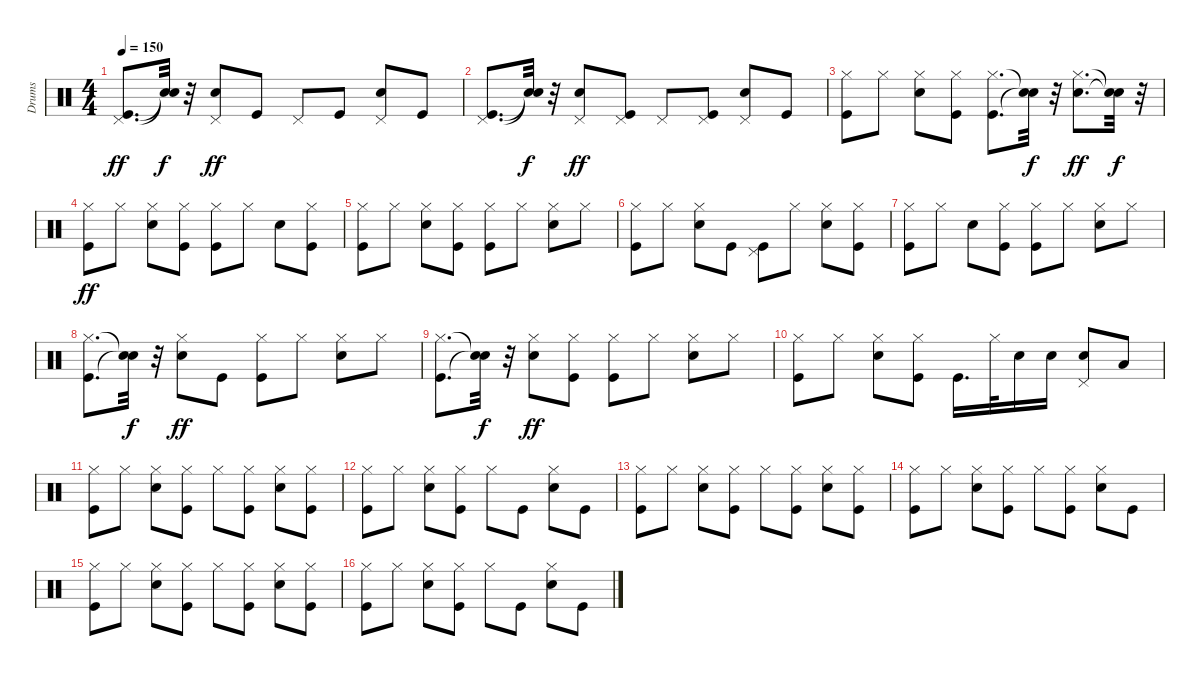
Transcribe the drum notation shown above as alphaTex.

\track ("Drums" "Drums") {instrument percussion}
\staff {score}
\articulation defaults
\ts (4 4)
\tempo 150
\clef neutral
\ks c
("Kick (hit)" "Pedal Hi-Hat (hit)").8{d dy ff} ("Snare (hit)"{t} "Snare (hit)"{t}).32{dy f} r.32 ("Snare (hit) 2" "Pedal Hi-Hat (hit)").8{dy ff} "Kick (hit)".8 "Pedal Hi-Hat (hit)".8 "Kick (hit)".8 ("Snare (hit) 2" "Pedal Hi-Hat (hit)").8 "Kick (hit)".8 |
("Kick (hit)" "Pedal Hi-Hat (hit)").8{d} ("Snare (hit)"{t} "Snare (hit)"{t}).32{dy f} r.32 ("Snare (hit) 2" "Pedal Hi-Hat (hit)").8{dy ff} ("Kick (hit)" "Pedal Hi-Hat (hit)").8 "Pedal Hi-Hat (hit)".8 ("Kick (hit)" "Pedal Hi-Hat (hit)").8 ("Snare (hit) 2" "Pedal Hi-Hat (hit)").8 "Kick (hit)".8 |
("Kick (hit)" "Hi-Hat (closed)").8 "Hi-Hat (closed)".8 ("Snare (hit) 2" "Hi-Hat (closed)").8 ("Kick (hit)" "Hi-Hat (closed)").8 ("Kick (hit)" "Hi-Hat (closed)").8{d} ("Snare (hit)"{t} "Snare (hit)"{t}).32{dy f} r.32 ("Snare (hit) 2" "Hi-Hat (closed)").8{d dy ff} ("Snare (hit)"{t} "Snare (hit)"{t}).32{dy f} r.32 |
("Kick (hit)" "Hi-Hat (closed)").8{dy ff} "Hi-Hat (closed)".8 ("Snare (hit) 2" "Hi-Hat (closed)").8 ("Kick (hit)" "Hi-Hat (closed)").8 ("Kick (hit)" "Hi-Hat (closed)").8 "Hi-Hat (closed)".8 "Snare (hit) 2".8 ("Kick (hit)" "Hi-Hat (closed)").8 |
("Kick (hit)" "Hi-Hat (closed)").8 "Hi-Hat (closed)".8 ("Snare (hit) 2" "Hi-Hat (closed)").8 ("Kick (hit)" "Hi-Hat (closed)").8 ("Kick (hit)" "Hi-Hat (closed)").8 "Hi-Hat (closed)".8 ("Snare (hit) 2" "Hi-Hat (closed)").8 "Hi-Hat (closed)".8 |
("Kick (hit)" "Hi-Hat (closed)").8 "Hi-Hat (closed)".8 ("Snare (hit) 2" "Hi-Hat (closed)").8 "Kick (hit)".8 ("Kick (hit)" "Pedal Hi-Hat (hit)").8 "Hi-Hat (closed)".8 ("Snare (hit) 2" "Hi-Hat (closed)").8 ("Kick (hit)" "Hi-Hat (closed)").8 |
("Kick (hit)" "Hi-Hat (closed)").8 "Hi-Hat (closed)".8 "Snare (hit) 2".8 ("Kick (hit)" "Hi-Hat (closed)").8 ("Kick (hit)" "Hi-Hat (closed)").8 "Hi-Hat (closed)".8 ("Snare (hit) 2" "Hi-Hat (closed)").8 "Hi-Hat (closed)".8 |
("Kick (hit)" "Hi-Hat (closed)").8{d} ("Snare (hit)"{t} "Snare (hit)"{t}).32{dy f} r.32 ("Snare (hit) 2" "Hi-Hat (closed)").8{dy ff} "Kick (hit)".8 ("Kick (hit)" "Hi-Hat (closed)").8 "Hi-Hat (closed)".8 ("Snare (hit) 2" "Hi-Hat (closed)").8 "Hi-Hat (closed)".8 |
("Kick (hit)" "Hi-Hat (closed)").8{d} ("Snare (hit)"{t} "Snare (hit)"{t}).32{dy f} r.32 ("Snare (hit) 2" "Hi-Hat (closed)").8{dy ff} ("Kick (hit)" "Hi-Hat (closed)").8 ("Kick (hit)" "Hi-Hat (closed)").8 "Hi-Hat (closed)".8 ("Snare (hit) 2" "Hi-Hat (closed)").8 "Hi-Hat (closed)".8 |
("Kick (hit)" "Hi-Hat (closed)").8 "Hi-Hat (closed)".8 ("Snare (hit) 2" "Hi-Hat (closed)").8 ("Kick (hit)" "Hi-Hat (closed)").8 "Kick (hit)".16{d} "Hi-Hat (closed)".32 "Snare (hit) 2".16 "Snare (hit) 2".16 ("Snare (hit) 2" "Pedal Hi-Hat (hit)").8 "Low Floor Tom (hit)".8 |
("Kick (hit)" "Hi-Hat (closed)").8 "Hi-Hat (closed)".8 ("Snare (hit) 2" "Hi-Hat (closed)").8 ("Kick (hit)" "Hi-Hat (closed)").8 "Hi-Hat (closed)".8 ("Kick (hit)" "Hi-Hat (closed)").8 ("Snare (hit) 2" "Hi-Hat (closed)").8 ("Kick (hit)" "Hi-Hat (closed)").8 |
("Kick (hit)" "Hi-Hat (closed)").8 "Hi-Hat (closed)".8 ("Snare (hit) 2" "Hi-Hat (closed)").8 ("Kick (hit)" "Hi-Hat (closed)").8 "Hi-Hat (closed)".8 "Kick (hit)".8 ("Snare (hit) 2" "Hi-Hat (closed)").8 "Kick (hit)".8 |
("Kick (hit)" "Hi-Hat (closed)").8 "Hi-Hat (closed)".8 ("Snare (hit) 2" "Hi-Hat (closed)").8 ("Kick (hit)" "Hi-Hat (closed)").8 "Hi-Hat (closed)".8 ("Kick (hit)" "Hi-Hat (closed)").8 ("Snare (hit) 2" "Hi-Hat (closed)").8 ("Kick (hit)" "Hi-Hat (closed)").8 |
("Kick (hit)" "Hi-Hat (closed)").8 "Hi-Hat (closed)".8 ("Snare (hit) 2" "Hi-Hat (closed)").8 ("Kick (hit)" "Hi-Hat (closed)").8 "Hi-Hat (closed)".8 ("Kick (hit)" "Hi-Hat (closed)").8 ("Snare (hit) 2" "Hi-Hat (closed)").8 "Kick (hit)".8 |
("Kick (hit)" "Hi-Hat (closed)").8 "Hi-Hat (closed)".8 ("Snare (hit) 2" "Hi-Hat (closed)").8 ("Kick (hit)" "Hi-Hat (closed)").8 "Hi-Hat (closed)".8 ("Kick (hit)" "Hi-Hat (closed)").8 ("Snare (hit) 2" "Hi-Hat (closed)").8 ("Kick (hit)" "Hi-Hat (closed)").8 |
("Kick (hit)" "Hi-Hat (closed)").8 "Hi-Hat (closed)".8 ("Snare (hit) 2" "Hi-Hat (closed)").8 ("Kick (hit)" "Hi-Hat (closed)").8 "Hi-Hat (closed)".8 "Kick (hit)".8 ("Snare (hit) 2" "Hi-Hat (closed)").8 "Kick (hit)".8
